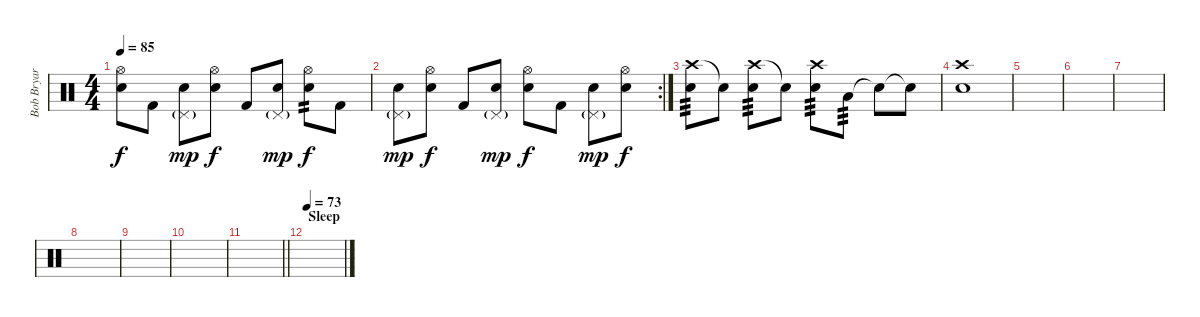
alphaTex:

\track ("Bob Bryar [Drums]" "Bob Bryar ") {instrument percussion}
\staff {score}
\articulation defaults
\ts (4 4)
\tempo 85
\clef neutral
\ks c
("Hi-Hat (open)" "Electric Snare (hit)").8{dy f} "Kick (hit) 2".8 ("Pedal Hi-Hat (hit)"{g} "Electric Snare (hit)").8{dy mp} ("Hi-Hat (open)" "Electric Snare (hit)").8{dy f} "Kick (hit) 2".8 ("Pedal Hi-Hat (hit)"{g} "Electric Snare (hit)").8{dy mp} ("Hi-Hat (open)" "Electric Snare (hit)").8{tp 2 dy f} "Kick (hit) 2".8 |
\rc 2
("Pedal Hi-Hat (hit)"{g} "Electric Snare (hit)").8{dy mp} ("Hi-Hat (open)" "Electric Snare (hit)").8{dy f} "Kick (hit) 2".8 ("Pedal Hi-Hat (hit)"{g} "Electric Snare (hit)").8{dy mp} ("Hi-Hat (open)" "Electric Snare (hit)").8{dy f} "Kick (hit) 2".8 ("Pedal Hi-Hat (hit)"{g} "Electric Snare (hit)").8{dy mp} ("Hi-Hat (open)" "Electric Snare (hit)").8{dy f} |
("Crash high (hit)" "Electric Snare (hit)").8{tp 3} "Snare (hit)"{t}.8 ("Crash high (hit)" "Electric Snare (hit)").8{tp 3} "Snare (hit)"{t}.8 ("Crash high (hit)" "Electric Snare (hit)").8{tp 3} "Low Tom (hit)".8{tp 3} "Snare (hit)"{t}.8 "Snare (hit)"{t}.8 |
("Crash high (hit)" "Electric Snare (hit)").1 |
|
|
|
|
|
|
\barLineRight lightlight
|
\section ("" "Sleep")
\tempo 73
